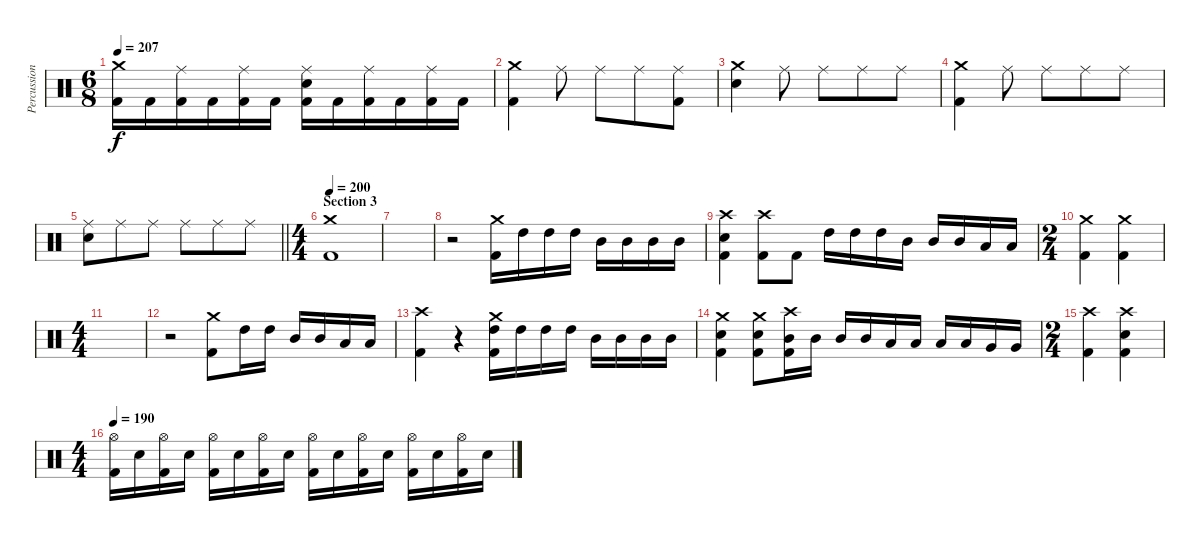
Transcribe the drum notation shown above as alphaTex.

\track ("Percussion" "Percussion") {instrument percussion}
\staff {score}
\articulation defaults
\ts (6 8)
\tempo 207
\clef neutral
\ks c
("Crash medium (hit)" "Kick (hit) 2").16{dy f} "Kick (hit) 2".16 ("Ride (middle)" "Kick (hit) 2").16 "Kick (hit) 2".16 ("Ride (middle)" "Kick (hit) 2").16 "Kick (hit) 2".16 ("Ride (middle)" "Electric Snare (hit)" "Kick (hit) 2").16 "Kick (hit) 2".16 ("Ride (middle)" "Kick (hit) 2").16 "Kick (hit) 2".16 ("Ride (middle)" "Kick (hit) 2").16 "Kick (hit) 2".16 |
("Crash medium (hit)" "Kick (hit) 2").4 "Ride (middle)".8 "Ride (middle)".8 "Ride (middle)".8 ("Ride (middle)" "Kick (hit) 2").8 |
("Crash medium (hit)" "Electric Snare (hit)").4 "Ride (middle)".8 "Ride (middle)".8 "Ride (middle)".8 "Ride (middle)".8 |
("Crash medium (hit)" "Kick (hit) 2").4 "Ride (middle)".8 "Ride (middle)".8 "Ride (middle)".8 "Ride (middle)".8 |
\barLineRight lightlight
("Ride (middle)" "Electric Snare (hit)").8 "Ride (middle)".8 "Ride (middle)".8 "Ride (middle)".8 "Ride (middle)".8 "Ride (middle)".8 |
\ts (4 4)
\section ("" "Section 3")
\tempo 200
("Crash medium (hit)" "Kick (hit) 2").1 |
|
r.2 ("Crash medium (hit)" "Kick (hit) 2").16 "High Tom (hit)".16 "High Tom (hit)".16 "High Tom (hit)".16 "Mid Tom (hit)".16 "Mid Tom (hit)".16 "Mid Tom (hit)".16 "Mid Tom (hit)".16 |
("Crash high (hit)" "Electric Snare (hit)" "Kick (hit) 2").4 ("Crash high (hit)" "Kick (hit) 2").8 "Kick (hit) 2".8 "High Tom (hit)".16 "High Tom (hit)".16 "High Tom (hit)".16 "Mid Tom (hit)".16 "Mid Tom (hit)".16 "Mid Tom (hit)".16 "Low Tom (hit)".16 "Low Tom (hit)".16 |
\ts (2 4)
("Crash medium (hit)" "Kick (hit) 2").4 ("Crash medium (hit)" "Kick (hit) 2").4 |
\ts (4 4)
|
r.2 ("Crash medium (hit)" "Kick (hit) 2").8 "High Tom (hit)".16 "High Tom (hit)".16 "Mid Tom (hit)".16 "Mid Tom (hit)".16 "Low Tom (hit)".16 "Low Tom (hit)".16 |
("Crash high (hit)" "Kick (hit) 2").4 r.4 ("Crash medium (hit)" "High Tom (hit)" "Kick (hit) 2").16 "High Tom (hit)".16 "High Tom (hit)".16 "High Tom (hit)".16 "Mid Tom (hit)".16 "Mid Tom (hit)".16 "Mid Tom (hit)".16 "Mid Tom (hit)".16 |
("Crash medium (hit)" "Electric Snare (hit)" "Kick (hit) 2").4 ("Crash medium (hit)" "Electric Snare (hit)" "Kick (hit) 2").8 ("Crash high (hit)" "Mid Tom (hit)" "Kick (hit) 2").16 "Mid Tom (hit)".16 "Mid Tom (hit)".16 "Mid Tom (hit)".16 "Low Tom (hit)".16 "Low Tom (hit)".16 "Low Tom (hit)".16 "Low Tom (hit)".16 "Very Low Tom (hit)".16 "Very Low Tom (hit)".16 |
\ts (2 4)
("Crash high (hit)" "Kick (hit) 2").4 ("Crash high (hit)" "Electric Snare (hit)" "Kick (hit) 2").4 |
\ts (4 4)
\tempo 190
("Hi-Hat (open)" "Kick (hit) 2").16 "Electric Snare (hit)".16 ("Hi-Hat (open)" "Kick (hit) 2").16 "Electric Snare (hit)".16 ("Hi-Hat (open)" "Kick (hit) 2").16 "Electric Snare (hit)".16 ("Hi-Hat (open)" "Kick (hit) 2").16 "Electric Snare (hit)".16 ("Hi-Hat (open)" "Kick (hit) 2").16 "Electric Snare (hit)".16 ("Hi-Hat (open)" "Kick (hit) 2").16 "Electric Snare (hit)".16 ("Hi-Hat (open)" "Kick (hit) 2").16 "Electric Snare (hit)".16 ("Hi-Hat (open)" "Kick (hit) 2").16 "Electric Snare (hit)".16
